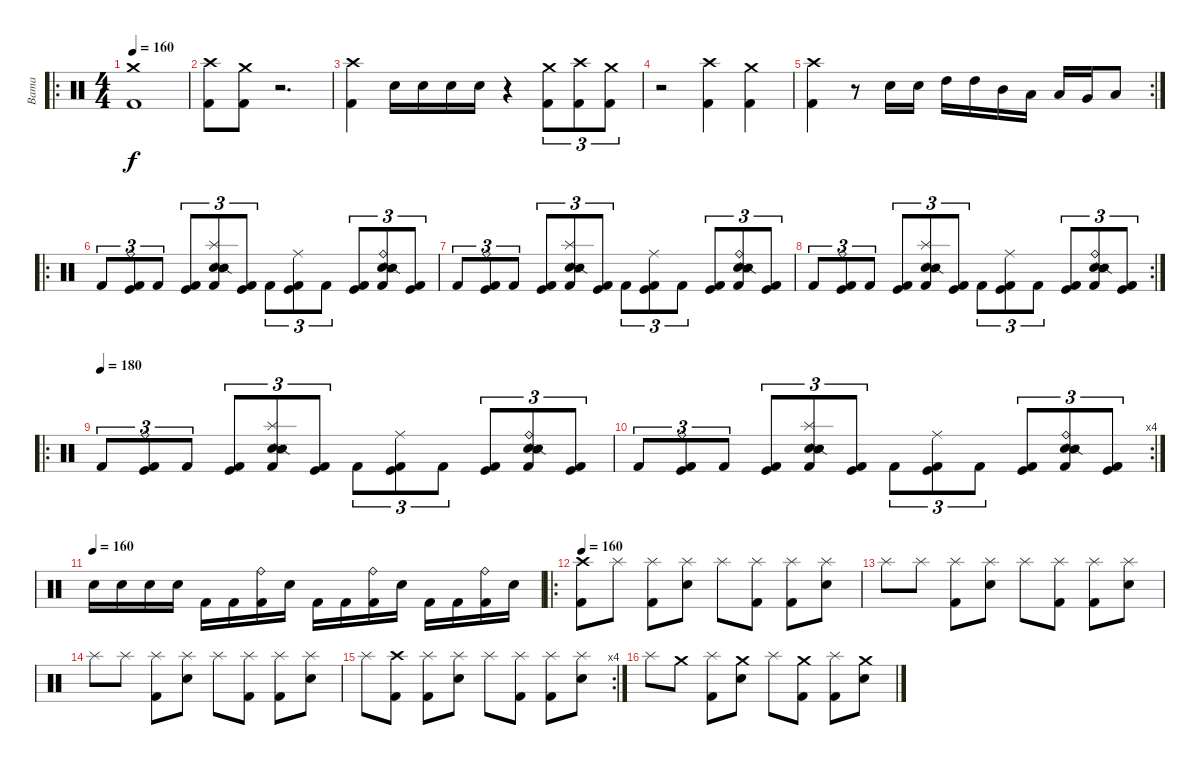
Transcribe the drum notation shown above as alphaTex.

\track ("Bama" "Bama") {instrument percussion}
\staff {score}
\articulation defaults
\ro
\ts (4 4)
\tempo 160
\clef neutral
\ks c
("Crash medium (hit)" "Kick (hit) 2").1{dy f} |
("Crash high (hit)" "Kick (hit) 2").8 ("Crash medium (hit)" "Kick (hit) 2").8 r.2{d} |
("Crash high (hit)" "Kick (hit) 2").4 "Electric Snare (hit)".16 "Electric Snare (hit)".16 "Electric Snare (hit)".16 "Electric Snare (hit)".16 r.4 ("Crash medium (hit)" "Kick (hit) 2").8{tu (3 2)} ("Crash high (hit)" "Kick (hit) 2").8{tu (3 2)} ("Crash medium (hit)" "Kick (hit) 2").8{tu (3 2)} |
r.2 ("Crash high (hit)" "Kick (hit) 2").4 ("Crash medium (hit)" "Kick (hit) 2").4 |
\rc 2
("Crash high (hit)" "Kick (hit) 2").4 r.8 "Electric Snare (hit)".16 "Electric Snare (hit)".16 "High Tom (hit)".16 "High Tom (hit)".16 "Mid Tom (hit)".16 "Low Tom (hit)".16 "Low Tom (hit)".16 "Very Low Tom (hit)".16 "Low Floor Tom (hit)".8 |
\ro "Kick (hit) 2".8{tu (3 2)}
("Ride (bell)" "Kick (hit)" "Kick (hit) 2").8{tu (3 2)} "Kick (hit) 2".8{tu (3 2)} ("Kick (hit)" "Kick (hit) 2").8{tu (3 2)} ("Splash (hit)" "Electric Snare (hit)" "Snare (side stick) 2" "Kick (hit) 2").8{tu (3 2)} ("Kick (hit)" "Kick (hit) 2").8{tu (3 2)} "Kick (hit) 2".8{tu (3 2)} ("Ride (middle)" "Kick (hit)" "Kick (hit) 2").8{tu (3 2)} "Kick (hit) 2".8{tu (3 2)} ("Kick (hit)" "Kick (hit) 2").8{tu (3 2)} ("Ride (bell)" "Electric Snare (hit)" "Snare (side stick) 2" "Kick (hit) 2").8{tu (3 2)} ("Kick (hit)" "Kick (hit) 2").8{tu (3 2)} |
"Kick (hit) 2".8{tu (3 2)} ("Ride (bell)" "Kick (hit)" "Kick (hit) 2").8{tu (3 2)} "Kick (hit) 2".8{tu (3 2)} ("Kick (hit)" "Kick (hit) 2").8{tu (3 2)} ("Splash (hit)" "Electric Snare (hit)" "Snare (side stick) 2" "Kick (hit) 2").8{tu (3 2)} ("Kick (hit)" "Kick (hit) 2").8{tu (3 2)} "Kick (hit) 2".8{tu (3 2)} ("Ride (middle)" "Kick (hit)" "Kick (hit) 2").8{tu (3 2)} "Kick (hit) 2".8{tu (3 2)} ("Kick (hit)" "Kick (hit) 2").8{tu (3 2)} ("Ride (bell)" "Electric Snare (hit)" "Snare (side stick) 2" "Kick (hit) 2").8{tu (3 2)} ("Kick (hit)" "Kick (hit) 2").8{tu (3 2)} |
\rc 2 "Kick (hit) 2".8{tu (3 2)}
("Ride (bell)" "Kick (hit)" "Kick (hit) 2").8{tu (3 2)} "Kick (hit) 2".8{tu (3 2)} ("Kick (hit)" "Kick (hit) 2").8{tu (3 2)} ("Splash (hit)" "Electric Snare (hit)" "Snare (side stick) 2" "Kick (hit) 2").8{tu (3 2)} ("Kick (hit)" "Kick (hit) 2").8{tu (3 2)} "Kick (hit) 2".8{tu (3 2)} ("Ride (middle)" "Kick (hit)" "Kick (hit) 2").8{tu (3 2)} "Kick (hit) 2".8{tu (3 2)} ("Kick (hit)" "Kick (hit) 2").8{tu (3 2)} ("Ride (bell)" "Electric Snare (hit)" "Snare (side stick) 2" "Kick (hit) 2").8{tu (3 2)} ("Kick (hit)" "Kick (hit) 2").8{tu (3 2)} |
\ro
\tempo (180)
"Kick (hit) 2".8{tu (3 2)} ("Ride (bell)" "Kick (hit)" "Kick (hit) 2").8{tu (3 2)} "Kick (hit) 2".8{tu (3 2)} ("Kick (hit)" "Kick (hit) 2").8{tu (3 2)} ("Splash (hit)" "Electric Snare (hit)" "Snare (side stick) 2" "Kick (hit) 2").8{tu (3 2)} ("Kick (hit)" "Kick (hit) 2").8{tu (3 2)} "Kick (hit) 2".8{tu (3 2)} ("Ride (middle)" "Kick (hit)" "Kick (hit) 2").8{tu (3 2)} "Kick (hit) 2".8{tu (3 2)} ("Kick (hit)" "Kick (hit) 2").8{tu (3 2)} ("Ride (bell)" "Electric Snare (hit)" "Snare (side stick) 2" "Kick (hit) 2").8{tu (3 2)} ("Kick (hit)" "Kick (hit) 2").8{tu (3 2)} |
\rc 4 "Kick (hit) 2".8{tu (3 2)}
("Ride (bell)" "Kick (hit)" "Kick (hit) 2").8{tu (3 2)} "Kick (hit) 2".8{tu (3 2)} ("Kick (hit)" "Kick (hit) 2").8{tu (3 2)} ("Splash (hit)" "Electric Snare (hit)" "Snare (side stick) 2" "Kick (hit) 2").8{tu (3 2)} ("Kick (hit)" "Kick (hit) 2").8{tu (3 2)} "Kick (hit) 2".8{tu (3 2)} ("Ride (middle)" "Kick (hit)" "Kick (hit) 2").8{tu (3 2)} "Kick (hit) 2".8{tu (3 2)} ("Kick (hit)" "Kick (hit) 2").8{tu (3 2)} ("Ride (bell)" "Electric Snare (hit)" "Snare (side stick) 2" "Kick (hit) 2").8{tu (3 2)} ("Kick (hit)" "Kick (hit) 2").8{tu (3 2)} |
\tempo (160)
"Electric Snare (hit)".16 "Electric Snare (hit)".16 "Electric Snare (hit)".16 "Electric Snare (hit)".16 "Kick (hit) 2".16 "Kick (hit) 2".16 ("Ride (bell)" "Kick (hit) 2").16 "Electric Snare (hit)".16 "Kick (hit) 2".16 "Kick (hit) 2".16 ("Ride (bell)" "Kick (hit) 2").16 "Electric Snare (hit)".16 "Kick (hit) 2".16 "Kick (hit) 2".16 ("Ride (bell)" "Kick (hit) 2").16 "Electric Snare (hit)".16 |
\ro
\tempo 160
("Crash high (hit)" "Kick (hit) 2").8 "Splash (hit)".8 ("Splash (hit)" "Kick (hit) 2").8 ("Splash (hit)" "Electric Snare (hit)").8 "Splash (hit)".8 ("Splash (hit)" "Kick (hit) 2").8 ("Splash (hit)" "Kick (hit) 2").8 ("Splash (hit)" "Electric Snare (hit)").8 |
"Splash (hit)".8 "Splash (hit)".8 ("Splash (hit)" "Kick (hit) 2").8 ("Splash (hit)" "Electric Snare (hit)").8 "Splash (hit)".8 ("Splash (hit)" "Kick (hit) 2").8 ("Splash (hit)" "Kick (hit) 2").8 ("Splash (hit)" "Electric Snare (hit)").8 |
"Splash (hit)".8 "Splash (hit)".8 ("Splash (hit)" "Kick (hit) 2").8 ("Splash (hit)" "Electric Snare (hit)").8 "Splash (hit)".8 ("Splash (hit)" "Kick (hit) 2").8 ("Splash (hit)" "Kick (hit) 2").8 ("Splash (hit)" "Electric Snare (hit)").8 |
\rc 4 "Splash (hit)".8
("Crash high (hit)" "Kick (hit) 2").8 ("Splash (hit)" "Kick (hit) 2").8 ("Splash (hit)" "Electric Snare (hit)").8 "Splash (hit)".8 ("Splash (hit)" "Kick (hit) 2").8 ("Splash (hit)" "Kick (hit) 2").8 ("Splash (hit)" "Electric Snare (hit)").8 |
"Splash (hit)".8 "Crash medium (hit)".8 ("Splash (hit)" "Kick (hit) 2").8 ("Crash medium (hit)" "Electric Snare (hit)").8 "Splash (hit)".8 ("Crash medium (hit)" "Kick (hit) 2").8 ("Splash (hit)" "Kick (hit) 2").8 ("Crash medium (hit)" "Electric Snare (hit)").8
